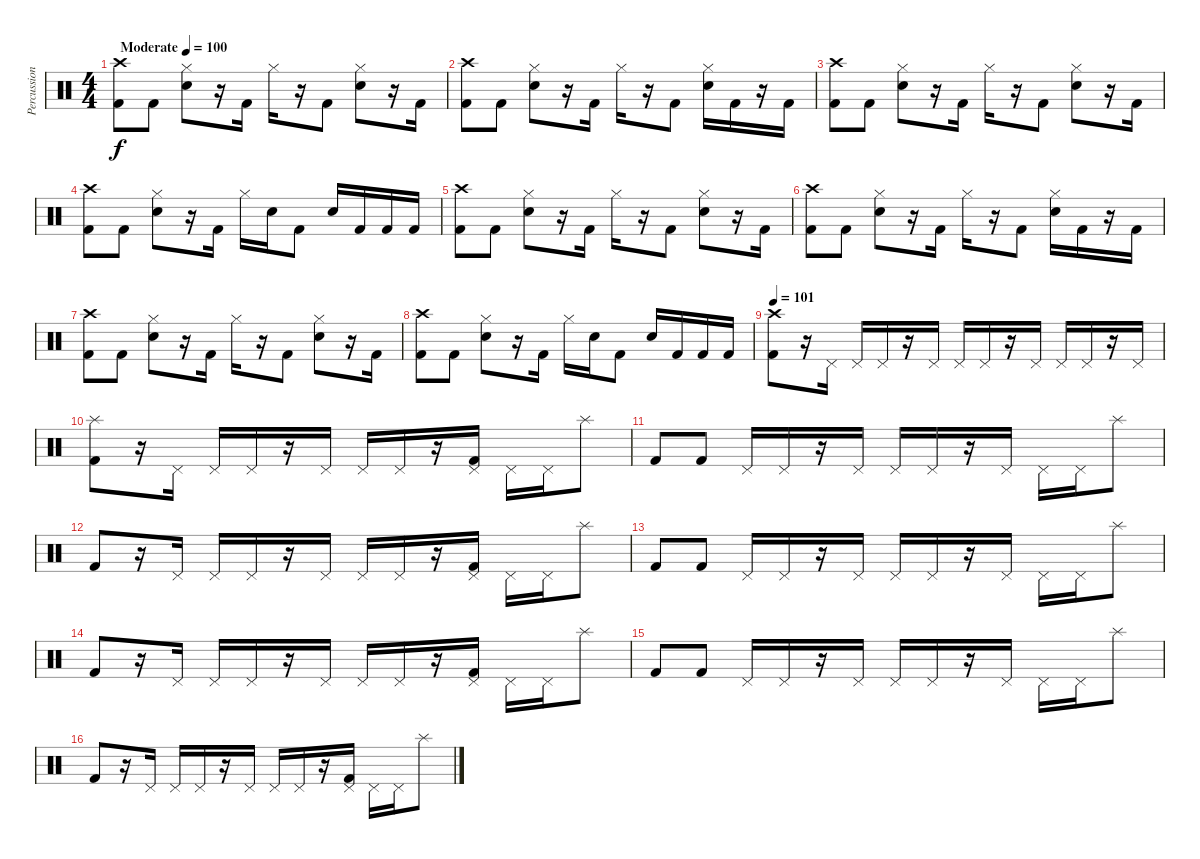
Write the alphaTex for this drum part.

\track ("Percussions" "Percussion") {instrument percussion}
\staff {score}
\articulation defaults
\ts (4 4)
\tempo (100 "Moderate")
\clef neutral
\ks c
("Crash high (hit)" "Kick (hit) 2").8{dy f} "Kick (hit) 2".8 ("Snare (hit) 2" "Hi-Hat (closed)").8 r.16 "Kick (hit) 2".16 "Hi-Hat (closed)".16 r.16 "Kick (hit) 2".8 ("Snare (hit) 2" "Hi-Hat (closed)").8 r.16 "Kick (hit) 2".16 |
("Crash high (hit)" "Kick (hit) 2").8 "Kick (hit) 2".8 ("Snare (hit) 2" "Hi-Hat (closed)").8 r.16 "Kick (hit) 2".16 "Hi-Hat (closed)".16 r.16 "Kick (hit) 2".8 ("Snare (hit) 2" "Hi-Hat (closed)").16 "Kick (hit) 2".16 r.16 "Kick (hit) 2".16 |
("Crash high (hit)" "Kick (hit) 2").8 "Kick (hit) 2".8 ("Snare (hit) 2" "Hi-Hat (closed)").8 r.16 "Kick (hit) 2".16 "Hi-Hat (closed)".16 r.16 "Kick (hit) 2".8 ("Snare (hit) 2" "Hi-Hat (closed)").8 r.16 "Kick (hit) 2".16 |
("Crash high (hit)" "Kick (hit) 2").8 "Kick (hit) 2".8 ("Snare (hit) 2" "Hi-Hat (closed)").8 r.16 "Kick (hit) 2".16 "Hi-Hat (closed)".16 "Snare (hit) 2".16 "Kick (hit) 2".8 "Snare (hit) 2".16 "Kick (hit) 2".16 "Kick (hit) 2".16 "Kick (hit) 2".16 |
("Crash high (hit)" "Kick (hit) 2").8 "Kick (hit) 2".8 ("Snare (hit) 2" "Hi-Hat (closed)").8 r.16 "Kick (hit) 2".16 "Hi-Hat (closed)".16 r.16 "Kick (hit) 2".8 ("Snare (hit) 2" "Hi-Hat (closed)").8 r.16 "Kick (hit) 2".16 |
("Crash high (hit)" "Kick (hit) 2").8 "Kick (hit) 2".8 ("Snare (hit) 2" "Hi-Hat (closed)").8 r.16 "Kick (hit) 2".16 "Hi-Hat (closed)".16 r.16 "Kick (hit) 2".8 ("Snare (hit) 2" "Hi-Hat (closed)").16 "Kick (hit) 2".16 r.16 "Kick (hit) 2".16 |
("Crash high (hit)" "Kick (hit) 2").8 "Kick (hit) 2".8 ("Snare (hit) 2" "Hi-Hat (closed)").8 r.16 "Kick (hit) 2".16 "Hi-Hat (closed)".16 r.16 "Kick (hit) 2".8 ("Snare (hit) 2" "Hi-Hat (closed)").8 r.16 "Kick (hit) 2".16 |
("Crash high (hit)" "Kick (hit) 2").8 "Kick (hit) 2".8 ("Snare (hit) 2" "Hi-Hat (closed)").8 r.16 "Kick (hit) 2".16 "Hi-Hat (closed)".16 "Snare (hit) 2".16 "Kick (hit) 2".8 "Snare (hit) 2".16 "Kick (hit) 2".16 "Kick (hit) 2".16 "Kick (hit) 2".16 |
\tempo 101
("Crash high (hit)" "Kick (hit) 2").8{volume 5} r.16 "Pedal Hi-Hat (hit)".16 "Pedal Hi-Hat (hit)".16 "Pedal Hi-Hat (hit)".16 r.16 "Pedal Hi-Hat (hit)".16 "Pedal Hi-Hat (hit)".16 "Pedal Hi-Hat (hit)".16 r.16 "Pedal Hi-Hat (hit)".16 "Pedal Hi-Hat (hit)".16 "Pedal Hi-Hat (hit)".16 r.16 "Pedal Hi-Hat (hit)".16 |
("Splash (hit)" "Kick (hit) 2").8 r.16 "Pedal Hi-Hat (hit)".16 "Pedal Hi-Hat (hit)".16 "Pedal Hi-Hat (hit)".16 r.16 "Pedal Hi-Hat (hit)".16 "Pedal Hi-Hat (hit)".16 "Pedal Hi-Hat (hit)".16 r.16 ("Pedal Hi-Hat (hit)" "Kick (hit) 2").16 "Pedal Hi-Hat (hit)".16 "Pedal Hi-Hat (hit)".16 "Splash (hit)".8 |
"Kick (hit) 2".8 "Kick (hit) 2".8 "Pedal Hi-Hat (hit)".16 "Pedal Hi-Hat (hit)".16 r.16 "Pedal Hi-Hat (hit)".16 "Pedal Hi-Hat (hit)".16 "Pedal Hi-Hat (hit)".16 r.16 "Pedal Hi-Hat (hit)".16 "Pedal Hi-Hat (hit)".16 "Pedal Hi-Hat (hit)".16 "Splash (hit)".8 |
"Kick (hit) 2".8 r.16 "Pedal Hi-Hat (hit)".16 "Pedal Hi-Hat (hit)".16 "Pedal Hi-Hat (hit)".16 r.16 "Pedal Hi-Hat (hit)".16 "Pedal Hi-Hat (hit)".16 "Pedal Hi-Hat (hit)".16 r.16 ("Pedal Hi-Hat (hit)" "Kick (hit) 2").16 "Pedal Hi-Hat (hit)".16 "Pedal Hi-Hat (hit)".16 "Splash (hit)".8 |
"Kick (hit) 2".8 "Kick (hit) 2".8 "Pedal Hi-Hat (hit)".16 "Pedal Hi-Hat (hit)".16 r.16 "Pedal Hi-Hat (hit)".16 "Pedal Hi-Hat (hit)".16 "Pedal Hi-Hat (hit)".16 r.16 "Pedal Hi-Hat (hit)".16 "Pedal Hi-Hat (hit)".16 "Pedal Hi-Hat (hit)".16 "Splash (hit)".8 |
"Kick (hit) 2".8 r.16 "Pedal Hi-Hat (hit)".16 "Pedal Hi-Hat (hit)".16 "Pedal Hi-Hat (hit)".16 r.16 "Pedal Hi-Hat (hit)".16 "Pedal Hi-Hat (hit)".16 "Pedal Hi-Hat (hit)".16 r.16 ("Pedal Hi-Hat (hit)" "Kick (hit) 2").16 "Pedal Hi-Hat (hit)".16 "Pedal Hi-Hat (hit)".16 "Splash (hit)".8 |
"Kick (hit) 2".8 "Kick (hit) 2".8 "Pedal Hi-Hat (hit)".16 "Pedal Hi-Hat (hit)".16 r.16 "Pedal Hi-Hat (hit)".16 "Pedal Hi-Hat (hit)".16 "Pedal Hi-Hat (hit)".16 r.16 "Pedal Hi-Hat (hit)".16 "Pedal Hi-Hat (hit)".16 "Pedal Hi-Hat (hit)".16 "Splash (hit)".8 |
"Kick (hit) 2".8 r.16 "Pedal Hi-Hat (hit)".16 "Pedal Hi-Hat (hit)".16 "Pedal Hi-Hat (hit)".16 r.16 "Pedal Hi-Hat (hit)".16 "Pedal Hi-Hat (hit)".16 "Pedal Hi-Hat (hit)".16 r.16 ("Pedal Hi-Hat (hit)" "Kick (hit) 2").16 "Pedal Hi-Hat (hit)".16 "Pedal Hi-Hat (hit)".16 "Splash (hit)".8
